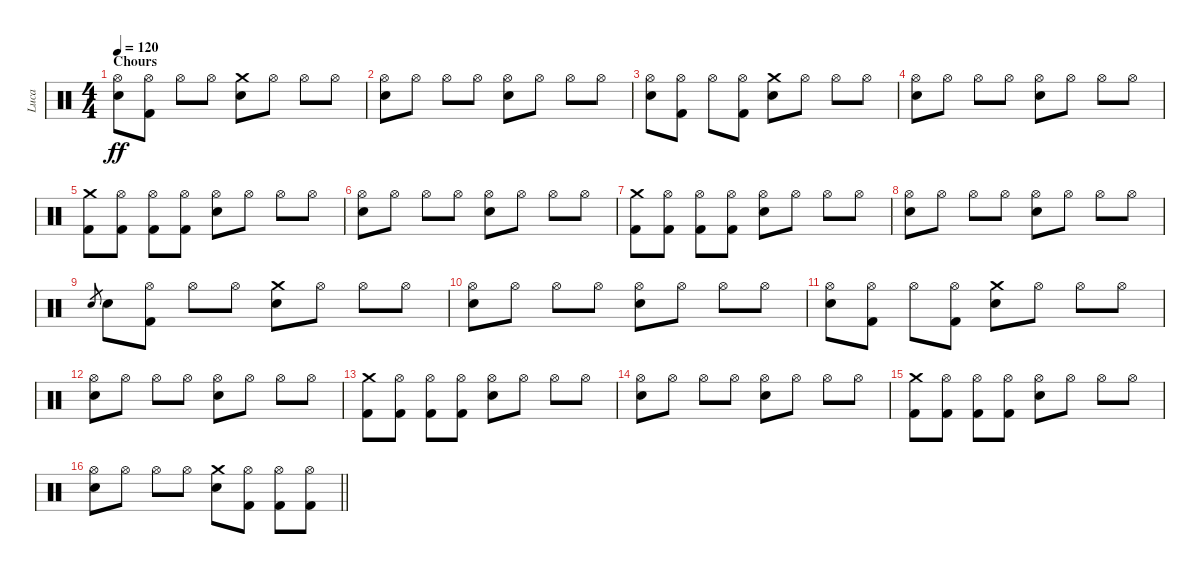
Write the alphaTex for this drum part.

\track ("Luca" "Luca") {instrument percussion}
\staff {score}
\articulation defaults
\ts (4 4)
\section ("" "Chours")
\tempo 120
\clef neutral
\ks c
("Hi-Hat (open)" "Snare (hit) 2").8{dy ff} ("Hi-Hat (open)" "Kick (hit) 2").8 "Hi-Hat (open)".8 "Hi-Hat (open)".8 ("Crash medium (hit)" "Snare (hit) 2").8 "Hi-Hat (open)".8 "Hi-Hat (open)".8 "Hi-Hat (open)".8 |
("Hi-Hat (open)" "Snare (hit) 2").8 "Hi-Hat (open)".8 "Hi-Hat (open)".8 "Hi-Hat (open)".8 ("Hi-Hat (open)" "Snare (hit) 2").8 "Hi-Hat (open)".8 "Hi-Hat (open)".8 "Hi-Hat (open)".8 |
("Hi-Hat (open)" "Snare (hit) 2").8 ("Hi-Hat (open)" "Kick (hit) 2").8 "Hi-Hat (open)".8 ("Hi-Hat (open)" "Kick (hit) 2").8 ("Crash medium (hit)" "Snare (hit) 2").8 "Hi-Hat (open)".8 "Hi-Hat (open)".8 "Hi-Hat (open)".8 |
("Hi-Hat (open)" "Snare (hit) 2").8 "Hi-Hat (open)".8 "Hi-Hat (open)".8 "Hi-Hat (open)".8 ("Hi-Hat (open)" "Snare (hit) 2").8 "Hi-Hat (open)".8 "Hi-Hat (open)".8 "Hi-Hat (open)".8 |
("Crash medium (hit)" "Kick (hit) 2").8 ("Hi-Hat (open)" "Kick (hit) 2").8 ("Hi-Hat (open)" "Kick (hit) 2").8 ("Hi-Hat (open)" "Kick (hit) 2").8 ("Hi-Hat (open)" "Snare (hit) 2").8 "Hi-Hat (open)".8 "Hi-Hat (open)".8 "Hi-Hat (open)".8 |
("Hi-Hat (open)" "Snare (hit) 2").8 "Hi-Hat (open)".8 "Hi-Hat (open)".8 "Hi-Hat (open)".8 ("Hi-Hat (open)" "Snare (hit) 2").8 "Hi-Hat (open)".8 "Hi-Hat (open)".8 "Hi-Hat (open)".8 |
("Crash medium (hit)" "Kick (hit) 2").8 ("Hi-Hat (open)" "Kick (hit) 2").8 ("Hi-Hat (open)" "Kick (hit) 2").8 ("Hi-Hat (open)" "Kick (hit) 2").8 ("Hi-Hat (open)" "Snare (hit) 2").8 "Hi-Hat (open)".8 "Hi-Hat (open)".8 "Hi-Hat (open)".8 |
("Hi-Hat (open)" "Snare (hit) 2").8 "Hi-Hat (open)".8 "Hi-Hat (open)".8 "Hi-Hat (open)".8 ("Hi-Hat (open)" "Snare (hit) 2").8 "Hi-Hat (open)".8 "Hi-Hat (open)".8 "Hi-Hat (open)".8 |
"Snare (hit) 2".8{gr} "Snare (hit) 2".8 ("Hi-Hat (open)" "Kick (hit) 2").8 "Hi-Hat (open)".8 "Hi-Hat (open)".8 ("Crash medium (hit)" "Snare (hit) 2").8 "Hi-Hat (open)".8 "Hi-Hat (open)".8 "Hi-Hat (open)".8 |
("Hi-Hat (open)" "Snare (hit) 2").8 "Hi-Hat (open)".8 "Hi-Hat (open)".8 "Hi-Hat (open)".8 ("Hi-Hat (open)" "Snare (hit) 2").8 "Hi-Hat (open)".8 "Hi-Hat (open)".8 "Hi-Hat (open)".8 |
("Hi-Hat (open)" "Snare (hit) 2").8 ("Hi-Hat (open)" "Kick (hit) 2").8 "Hi-Hat (open)".8 ("Hi-Hat (open)" "Kick (hit) 2").8 ("Crash medium (hit)" "Snare (hit) 2").8 "Hi-Hat (open)".8 "Hi-Hat (open)".8 "Hi-Hat (open)".8 |
("Hi-Hat (open)" "Snare (hit) 2").8 "Hi-Hat (open)".8 "Hi-Hat (open)".8 "Hi-Hat (open)".8 ("Hi-Hat (open)" "Snare (hit) 2").8 "Hi-Hat (open)".8 "Hi-Hat (open)".8 "Hi-Hat (open)".8 |
("Crash medium (hit)" "Kick (hit) 2").8 ("Hi-Hat (open)" "Kick (hit) 2").8 ("Hi-Hat (open)" "Kick (hit) 2").8 ("Hi-Hat (open)" "Kick (hit) 2").8 ("Hi-Hat (open)" "Snare (hit) 2").8 "Hi-Hat (open)".8 "Hi-Hat (open)".8 "Hi-Hat (open)".8 |
("Hi-Hat (open)" "Snare (hit) 2").8 "Hi-Hat (open)".8 "Hi-Hat (open)".8 "Hi-Hat (open)".8 ("Hi-Hat (open)" "Snare (hit) 2").8 "Hi-Hat (open)".8 "Hi-Hat (open)".8 "Hi-Hat (open)".8 |
("Crash medium (hit)" "Kick (hit) 2").8 ("Hi-Hat (open)" "Kick (hit) 2").8 ("Hi-Hat (open)" "Kick (hit) 2").8 ("Hi-Hat (open)" "Kick (hit) 2").8 ("Hi-Hat (open)" "Snare (hit) 2").8 "Hi-Hat (open)".8 "Hi-Hat (open)".8 "Hi-Hat (open)".8 |
\barLineRight lightlight
("Hi-Hat (open)" "Snare (hit) 2").8 "Hi-Hat (open)".8 "Hi-Hat (open)".8 "Hi-Hat (open)".8 ("Crash medium (hit)" "Snare (hit) 2").8 ("Hi-Hat (open)" "Kick (hit) 2").8 ("Hi-Hat (open)" "Kick (hit) 2").8 ("Hi-Hat (open)" "Kick (hit) 2").8
